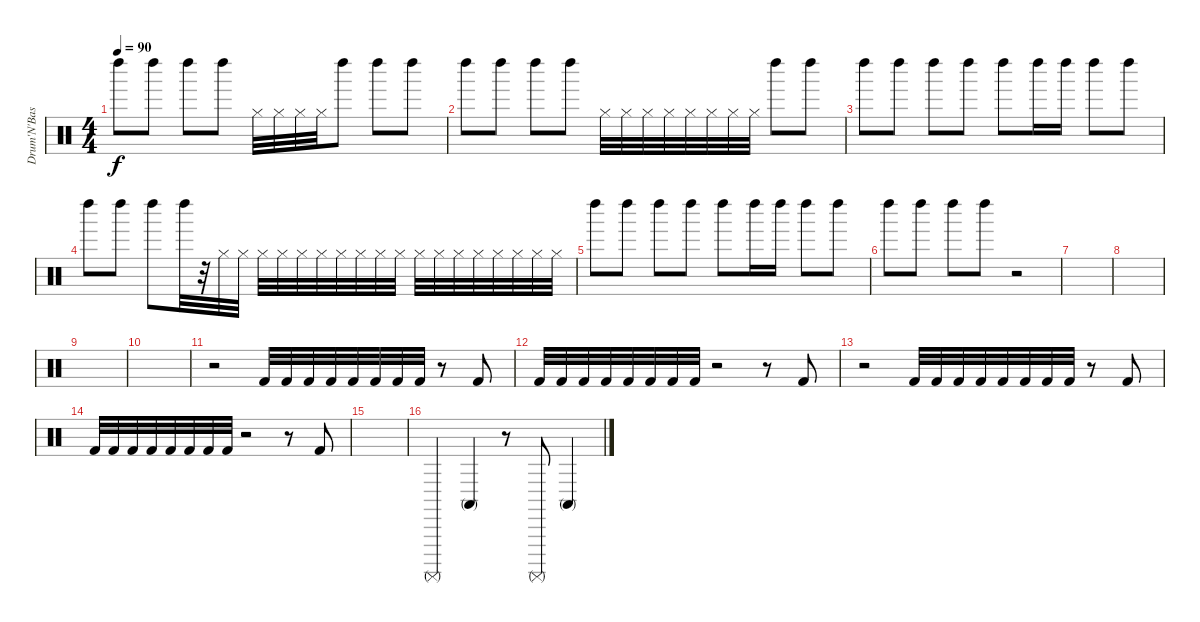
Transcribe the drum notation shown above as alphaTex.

\track ("Drum'N'Base Effects" "Drum'N'Bas") {instrument percussion}
\staff {score}
\articulation defaults
\ts (4 4)
\tempo 90
\clef neutral
\ks c "Left Maraca (hit)".8{dy f} "Left Maraca (hit)".8 "Left Maraca (hit)".8 "Left Maraca (hit)".8 "Hi-Hat (closed)".32 "Hi-Hat (closed)".32 "Hi-Hat (closed)".32 "Hi-Hat (closed)".32 "Left Maraca (hit)".8 "Left Maraca (hit)".8 "Left Maraca (hit)".8
|
"Left Maraca (hit)".8 "Left Maraca (hit)".8 "Left Maraca (hit)".8 "Left Maraca (hit)".8 "Hi-Hat (closed)".32 "Hi-Hat (closed)".32 "Hi-Hat (closed)".32 "Hi-Hat (closed)".32 "Hi-Hat (closed)".32 "Hi-Hat (closed)".32 "Hi-Hat (closed)".32 "Hi-Hat (closed)".32 "Left Maraca (hit)".8 "Left Maraca (hit)".8 |
"Left Maraca (hit)".8 "Left Maraca (hit)".8 "Left Maraca (hit)".8 "Left Maraca (hit)".8 "Left Maraca (hit)".8 "Left Maraca (hit)".16 "Left Maraca (hit)".16 "Left Maraca (hit)".8 "Left Maraca (hit)".8 |
"Left Maraca (hit)".8 "Left Maraca (hit)".8 "Left Maraca (hit)".8 "Left Maraca (hit)".32 r.32 "Hi-Hat (closed)".32 "Hi-Hat (closed)".32 "Hi-Hat (closed)".32 "Hi-Hat (closed)".32 "Hi-Hat (closed)".32 "Hi-Hat (closed)".32 "Hi-Hat (closed)".32 "Hi-Hat (closed)".32 "Hi-Hat (closed)".32 "Hi-Hat (closed)".32 "Hi-Hat (closed)".32 "Hi-Hat (closed)".32 "Hi-Hat (closed)".32 "Hi-Hat (closed)".32 "Hi-Hat (closed)".32 "Hi-Hat (closed)".32 "Hi-Hat (closed)".32 "Hi-Hat (closed)".32 |
"Left Maraca (hit)".8 "Left Maraca (hit)".8 "Left Maraca (hit)".8 "Left Maraca (hit)".8 "Left Maraca (hit)".8 "Left Maraca (hit)".16 "Left Maraca (hit)".16 "Left Maraca (hit)".8 "Left Maraca (hit)".8 |
"Left Maraca (hit)".8 "Left Maraca (hit)".8 "Left Maraca (hit)".8 "Left Maraca (hit)".8 r.2 |
|
|
|
|
r.2 "Kick (hit) 2".32 "Kick (hit) 2".32 "Kick (hit) 2".32 "Kick (hit) 2".32 "Kick (hit) 2".32 "Kick (hit) 2".32 "Kick (hit) 2".32 "Kick (hit) 2".32 r.8 "Kick (hit) 2".8 |
"Kick (hit) 2".32 "Kick (hit) 2".32 "Kick (hit) 2".32 "Kick (hit) 2".32 "Kick (hit) 2".32 "Kick (hit) 2".32 "Kick (hit) 2".32 "Kick (hit) 2".32 r.2 r.8 "Kick (hit) 2".8 |
r.2 "Kick (hit) 2".32 "Kick (hit) 2".32 "Kick (hit) 2".32 "Kick (hit) 2".32 "Kick (hit) 2".32 "Kick (hit) 2".32 "Kick (hit) 2".32 "Kick (hit) 2".32 r.8 "Kick (hit) 2".8 |
"Kick (hit) 2".32 "Kick (hit) 2".32 "Kick (hit) 2".32 "Kick (hit) 2".32 "Kick (hit) 2".32 "Kick (hit) 2".32 "Kick (hit) 2".32 "Kick (hit) 2".32 r.2 r.8 "Kick (hit) 2".8 |
|
"Surdo (mute)".4 "Conga high (mute)".4 r.8 "Surdo (mute)".8 "Conga high (mute)".4
